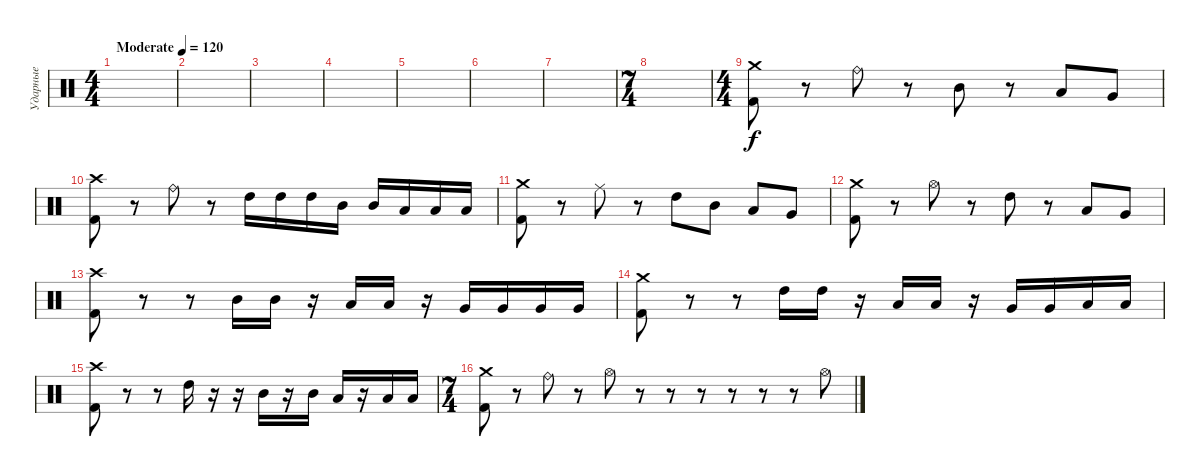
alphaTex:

\track ("Ударные" "Ударные") {instrument percussion}
\staff {score}
\articulation defaults
\ts (4 4)
\tempo (120 "Moderate")
\clef neutral
\ks c
|
|
|
|
|
|
|
\ts (7 4)
|
\ts (4 4)
("Crash medium (hit)" "Kick (hit) 2").8 r.8 "Ride (bell)".8 r.8 "Mid Tom (hit)".8 r.8 "Low Tom (hit)".8 "Very Low Tom (hit)".8 |
("Crash high (hit)" "Kick (hit) 2").8 r.8 "Ride (bell)".8 r.8 "High Tom (hit)".16 "High Tom (hit)".16 "High Tom (hit)".16 "Mid Tom (hit)".16 "Mid Tom (hit)".16 "Low Tom (hit)".16 "Low Tom (hit)".16 "Low Tom (hit)".16 |
("Crash medium (hit)" "Kick (hit) 2").8 r.8 "Ride (middle)".8 r.8 "High Tom (hit)".8 "Mid Tom (hit)".8 "Low Tom (hit)".8 "Very Low Tom (hit)".8 |
("Crash medium (hit)" "Kick (hit) 2").8 r.8 "Hi-Hat (open)".8 r.8 "High Tom (hit)".8 r.8 "Low Tom (hit)".8 "Very Low Tom (hit)".8 |
("Crash high (hit)" "Kick (hit) 2").8 r.8 r.8 "Mid Tom (hit)".16 "Mid Tom (hit)".16 r.16 "Low Tom (hit)".16 "Low Tom (hit)".16 r.16 "Very Low Tom (hit)".16 "Very Low Tom (hit)".16 "Very Low Tom (hit)".16 "Very Low Tom (hit)".16 |
("Crash medium (hit)" "Kick (hit) 2").8 r.8 r.8 "High Tom (hit)".16 "High Tom (hit)".16 r.16 "Low Tom (hit)".16 "Low Tom (hit)".16 r.16 "Very Low Tom (hit)".16 "Very Low Tom (hit)".16 "Low Floor Tom (hit)".16 "Low Floor Tom (hit)".16 |
("Crash high (hit)" "Kick (hit) 2").8 r.8 r.8 "High Tom (hit)".16 r.16 r.16 "Mid Tom (hit)".16 r.16 "Mid Tom (hit)".16 "Low Tom (hit)".16 r.16 "Low Tom (hit)".16 "Low Tom (hit)".16 |
\ts (7 4)
("Crash medium (hit)" "Kick (hit) 2").8 r.8 "Ride (bell)".8 r.8 "Hi-Hat (open)".8 r.8 r.8 r.8 r.8 r.8 r.8 "Hi-Hat (open)".8
